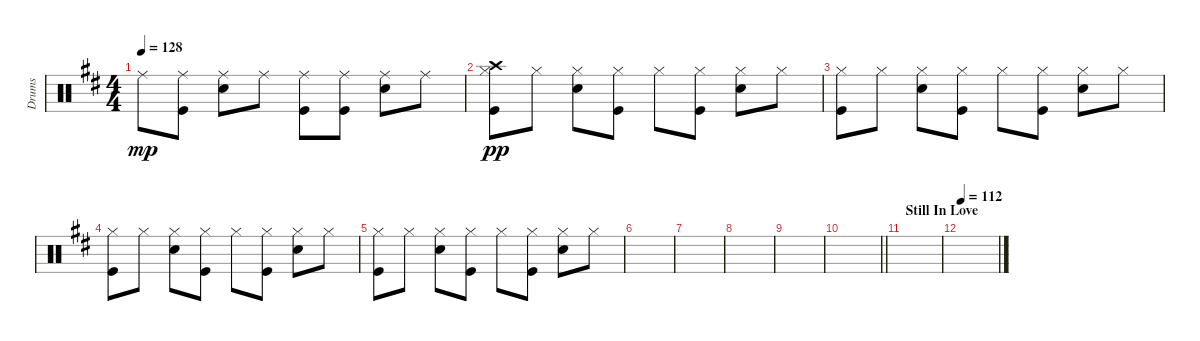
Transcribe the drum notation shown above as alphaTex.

\track ("Drums" "Drums") {instrument percussion}
\staff {score}
\articulation defaults
\ts (4 4)
\tempo 128
\clef neutral
\ks d "Ride (middle)".8{dy mp}
("Ride (middle)" "Kick (hit)").8 ("Ride (middle)" "Electric Snare (hit)").8 "Ride (middle)".8 ("Ride (middle)" "Kick (hit)").8 ("Ride (middle)" "Kick (hit)").8 ("Ride (middle)" "Electric Snare (hit)").8 "Ride (middle)".8 |
("Crash high (hit)" "Hi-Hat (closed)" "Kick (hit)").8{dy pp} "Hi-Hat (closed)".8 ("Hi-Hat (closed)" "Electric Snare (hit)").8 ("Hi-Hat (closed)" "Kick (hit)").8 "Hi-Hat (closed)".8 ("Hi-Hat (closed)" "Kick (hit)").8 ("Hi-Hat (closed)" "Electric Snare (hit)").8 "Hi-Hat (closed)".8 |
("Hi-Hat (closed)" "Kick (hit)").8 "Hi-Hat (closed)".8 ("Hi-Hat (closed)" "Electric Snare (hit)").8 ("Hi-Hat (closed)" "Kick (hit)").8 "Hi-Hat (closed)".8 ("Hi-Hat (closed)" "Kick (hit)").8 ("Hi-Hat (closed)" "Electric Snare (hit)").8 "Hi-Hat (closed)".8 |
("Hi-Hat (closed)" "Kick (hit)").8 "Hi-Hat (closed)".8 ("Hi-Hat (closed)" "Electric Snare (hit)").8 ("Hi-Hat (closed)" "Kick (hit)").8 "Hi-Hat (closed)".8 ("Hi-Hat (closed)" "Kick (hit)").8 ("Hi-Hat (closed)" "Electric Snare (hit)").8 "Hi-Hat (closed)".8 |
("Hi-Hat (closed)" "Kick (hit)").8 "Hi-Hat (closed)".8 ("Hi-Hat (closed)" "Electric Snare (hit)").8 ("Hi-Hat (closed)" "Kick (hit)").8 "Hi-Hat (closed)".8 ("Hi-Hat (closed)" "Kick (hit)").8 ("Hi-Hat (closed)" "Electric Snare (hit)").8 "Hi-Hat (closed)".8 |
|
|
|
|
\barLineRight lightlight
|
\section ("" "Still In Love")
|
\tempo 112
